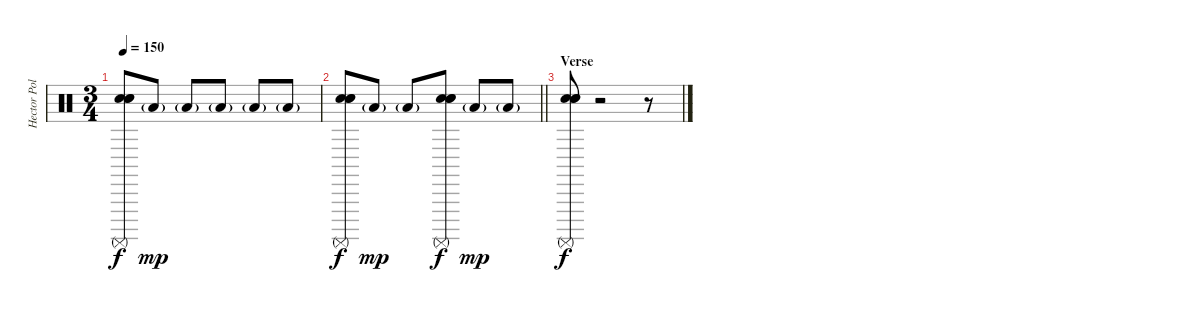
\track ("Hector Polo" "Hector Pol") {instrument percussion}
\staff {score}
\articulation defaults
\ts (3 4)
\tempo 150
\clef neutral
\ks c
("Surdo (mute)" "Snare (hit) 2" "Electric Snare (hit)" "Hand Clap (hit)").8{dy f} "Low Floor Tom (hit)"{g}.8{dy mp} "Low Floor Tom (hit)"{g}.8 "Low Floor Tom (hit)"{g}.8 "Low Floor Tom (hit)"{g}.8 "Low Floor Tom (hit)"{g}.8 |
\barLineRight lightlight
("Surdo (mute)" "Snare (hit) 2" "Electric Snare (hit)" "Hand Clap (hit)").8{dy f} "Low Floor Tom (hit)"{g}.8{dy mp} "Low Floor Tom (hit)"{g}.8 ("Surdo (mute)" "Snare (hit) 2" "Electric Snare (hit)" "Hand Clap (hit)").8{dy f} "Low Floor Tom (hit)"{g}.8{dy mp} "Low Floor Tom (hit)"{g}.8 |
\section ("" "Verse")
("Surdo (mute)" "Snare (hit) 2" "Electric Snare (hit)" "Hand Clap (hit)").8{dy f} r.2 r.8
